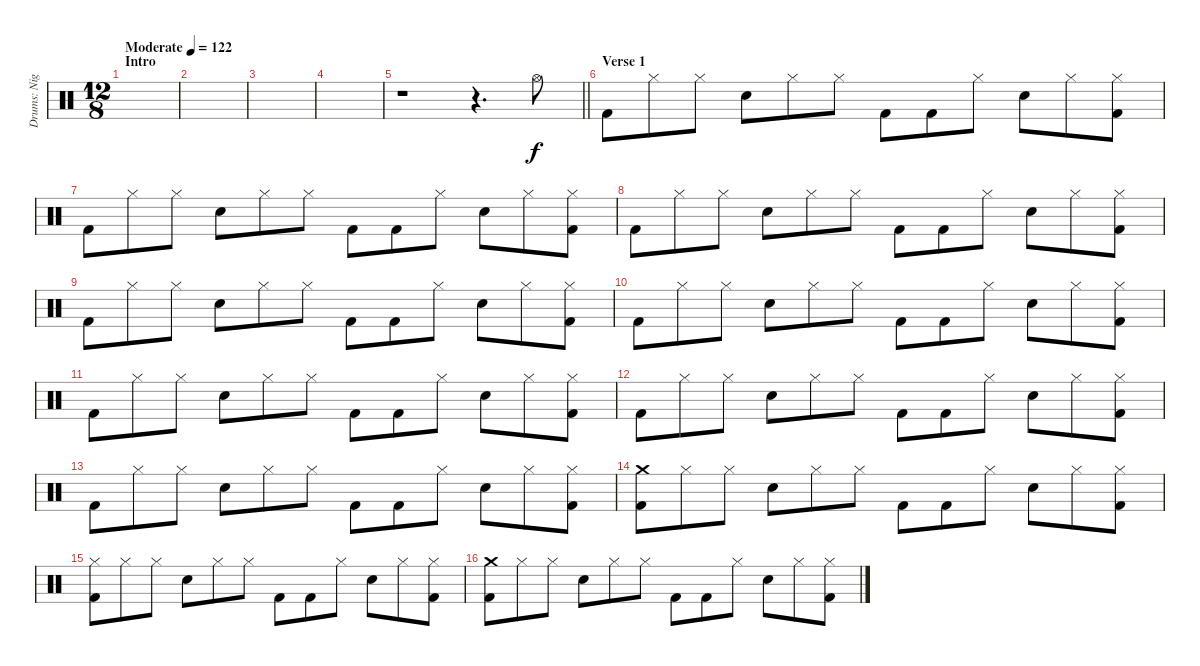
\track ("Drums: Nigel Ollson" "Drums: Nig") {instrument percussion}
\staff {score}
\articulation defaults
\ts (12 8)
\section ("" "Intro")
\tempo (122 "Moderate")
\clef neutral
\ks c
|
|
|
|
\barLineRight lightlight
r.1 r.4{d} "Hi-Hat (open)".8 |
\section ("" "Verse 1")
"Kick (hit) 2".8 "Hi-Hat (closed)".8 "Hi-Hat (closed)".8 "Snare (hit) 2".8 "Hi-Hat (closed)".8 "Hi-Hat (closed)".8 "Kick (hit) 2".8 "Kick (hit) 2".8 "Hi-Hat (closed)".8 "Snare (hit) 2".8 "Hi-Hat (closed)".8 ("Hi-Hat (closed)" "Kick (hit) 2").8 |
"Kick (hit) 2".8 "Hi-Hat (closed)".8 "Hi-Hat (closed)".8 "Snare (hit) 2".8 "Hi-Hat (closed)".8 "Hi-Hat (closed)".8 "Kick (hit) 2".8 "Kick (hit) 2".8 "Hi-Hat (closed)".8 "Snare (hit) 2".8 "Hi-Hat (closed)".8 ("Hi-Hat (closed)" "Kick (hit) 2").8 |
"Kick (hit) 2".8 "Hi-Hat (closed)".8 "Hi-Hat (closed)".8 "Snare (hit) 2".8 "Hi-Hat (closed)".8 "Hi-Hat (closed)".8 "Kick (hit) 2".8 "Kick (hit) 2".8 "Hi-Hat (closed)".8 "Snare (hit) 2".8 "Hi-Hat (closed)".8 ("Hi-Hat (closed)" "Kick (hit) 2").8 |
"Kick (hit) 2".8 "Hi-Hat (closed)".8 "Hi-Hat (closed)".8 "Snare (hit) 2".8 "Hi-Hat (closed)".8 "Hi-Hat (closed)".8 "Kick (hit) 2".8 "Kick (hit) 2".8 "Hi-Hat (closed)".8 "Snare (hit) 2".8 "Hi-Hat (closed)".8 ("Hi-Hat (closed)" "Kick (hit) 2").8 |
"Kick (hit) 2".8 "Hi-Hat (closed)".8 "Hi-Hat (closed)".8 "Snare (hit) 2".8 "Hi-Hat (closed)".8 "Hi-Hat (closed)".8 "Kick (hit) 2".8 "Kick (hit) 2".8 "Hi-Hat (closed)".8 "Snare (hit) 2".8 "Hi-Hat (closed)".8 ("Hi-Hat (closed)" "Kick (hit) 2").8 |
"Kick (hit) 2".8 "Hi-Hat (closed)".8 "Hi-Hat (closed)".8 "Snare (hit) 2".8 "Hi-Hat (closed)".8 "Hi-Hat (closed)".8 "Kick (hit) 2".8 "Kick (hit) 2".8 "Hi-Hat (closed)".8 "Snare (hit) 2".8 "Hi-Hat (closed)".8 ("Hi-Hat (closed)" "Kick (hit) 2").8 |
"Kick (hit) 2".8 "Hi-Hat (closed)".8 "Hi-Hat (closed)".8 "Snare (hit) 2".8 "Hi-Hat (closed)".8 "Hi-Hat (closed)".8 "Kick (hit) 2".8 "Kick (hit) 2".8 "Hi-Hat (closed)".8 "Snare (hit) 2".8 "Hi-Hat (closed)".8 ("Hi-Hat (closed)" "Kick (hit) 2").8 |
"Kick (hit) 2".8 "Hi-Hat (closed)".8 "Hi-Hat (closed)".8 "Snare (hit) 2".8 "Hi-Hat (closed)".8 "Hi-Hat (closed)".8 "Kick (hit) 2".8 "Kick (hit) 2".8 "Hi-Hat (closed)".8 "Snare (hit) 2".8 "Hi-Hat (closed)".8 ("Hi-Hat (closed)" "Kick (hit) 2").8 |
("Crash medium (hit)" "Kick (hit) 2").8 "Hi-Hat (closed)".8 "Hi-Hat (closed)".8 "Snare (hit) 2".8 "Hi-Hat (closed)".8 "Hi-Hat (closed)".8 "Kick (hit) 2".8 "Kick (hit) 2".8 "Hi-Hat (closed)".8 "Snare (hit) 2".8 "Hi-Hat (closed)".8 ("Hi-Hat (closed)" "Kick (hit) 2").8 |
("Hi-Hat (closed)" "Kick (hit) 2").8 "Hi-Hat (closed)".8 "Hi-Hat (closed)".8 "Snare (hit) 2".8 "Hi-Hat (closed)".8 "Hi-Hat (closed)".8 "Kick (hit) 2".8 "Kick (hit) 2".8 "Hi-Hat (closed)".8 "Snare (hit) 2".8 "Hi-Hat (closed)".8 ("Hi-Hat (closed)" "Kick (hit) 2").8 |
("Crash medium (hit)" "Kick (hit) 2").8 "Hi-Hat (closed)".8 "Hi-Hat (closed)".8 "Snare (hit) 2".8 "Hi-Hat (closed)".8 "Hi-Hat (closed)".8 "Kick (hit) 2".8 "Kick (hit) 2".8 "Hi-Hat (closed)".8 "Snare (hit) 2".8 "Hi-Hat (closed)".8 ("Hi-Hat (closed)" "Kick (hit) 2").8
